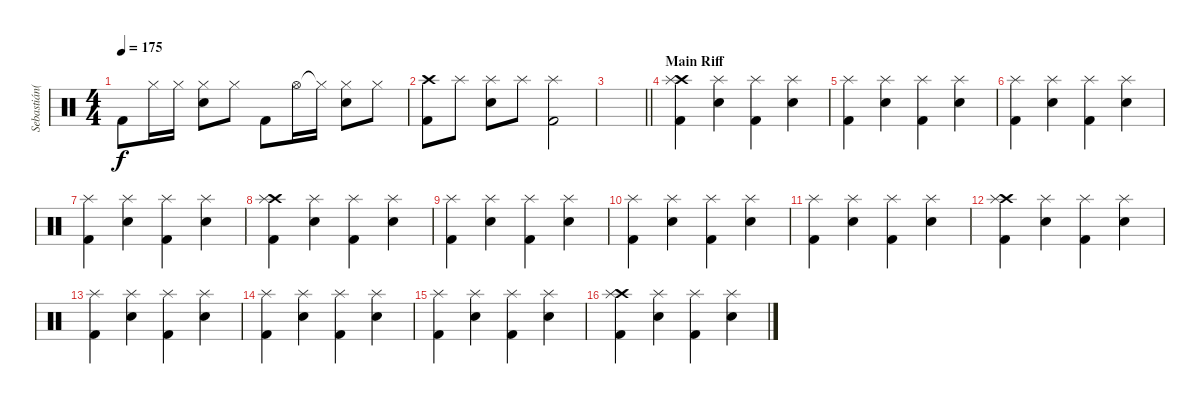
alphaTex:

\track ("Sebastián(Bateria)" "Sebastián(") {instrument percussion}
\staff {score}
\articulation defaults
\ts (4 4)
\tempo 175
\clef neutral
\ks c "Kick (hit) 2".8{dy f} "Hi-Hat (closed)".16 "Hi-Hat (closed)".16
("Hi-Hat (closed)" "Snare (hit) 2").8 "Hi-Hat (closed)".8 "Kick (hit) 2".8 "Hi-Hat (open)".16 "Hi-Hat (closed)"{t}.16 ("Hi-Hat (closed)" "Snare (hit) 2").8 "Hi-Hat (closed)".8 |
("Crash high (hit)" "Kick (hit) 2").8 "Splash (hit)".8 ("Splash (hit)" "Snare (hit) 2").8 "Splash (hit)".8 ("Splash (hit)" "Kick (hit) 2").2 |
\barLineRight lightlight
|
\section ("" "Main Riff")
("Crash high (hit)" "Splash (hit)" "Kick (hit) 2").4 ("Snare (hit) 2" "Splash (hit)").4 ("Splash (hit)" "Kick (hit) 2").4 ("Snare (hit) 2" "Splash (hit)").4 |
("Splash (hit)" "Kick (hit) 2").4 ("Snare (hit) 2" "Splash (hit)").4 ("Splash (hit)" "Kick (hit) 2").4 ("Snare (hit) 2" "Splash (hit)").4 |
("Splash (hit)" "Kick (hit) 2").4 ("Snare (hit) 2" "Splash (hit)").4 ("Splash (hit)" "Kick (hit) 2").4 ("Snare (hit) 2" "Splash (hit)").4 |
("Splash (hit)" "Kick (hit) 2").4 ("Snare (hit) 2" "Splash (hit)").4 ("Splash (hit)" "Kick (hit) 2").4 ("Snare (hit) 2" "Splash (hit)").4 |
("Crash high (hit)" "Splash (hit)" "Kick (hit) 2").4 ("Snare (hit) 2" "Splash (hit)").4 ("Splash (hit)" "Kick (hit) 2").4 ("Snare (hit) 2" "Splash (hit)").4 |
("Splash (hit)" "Kick (hit) 2").4 ("Snare (hit) 2" "Splash (hit)").4 ("Splash (hit)" "Kick (hit) 2").4 ("Snare (hit) 2" "Splash (hit)").4 |
("Splash (hit)" "Kick (hit) 2").4 ("Snare (hit) 2" "Splash (hit)").4 ("Splash (hit)" "Kick (hit) 2").4 ("Snare (hit) 2" "Splash (hit)").4 |
("Splash (hit)" "Kick (hit) 2").4 ("Snare (hit) 2" "Splash (hit)").4 ("Splash (hit)" "Kick (hit) 2").4 ("Snare (hit) 2" "Splash (hit)").4 |
("Crash high (hit)" "Splash (hit)" "Kick (hit) 2").4 ("Snare (hit) 2" "Splash (hit)").4 ("Splash (hit)" "Kick (hit) 2").4 ("Snare (hit) 2" "Splash (hit)").4 |
("Splash (hit)" "Kick (hit) 2").4 ("Snare (hit) 2" "Splash (hit)").4 ("Splash (hit)" "Kick (hit) 2").4 ("Snare (hit) 2" "Splash (hit)").4 |
("Splash (hit)" "Kick (hit) 2").4 ("Snare (hit) 2" "Splash (hit)").4 ("Splash (hit)" "Kick (hit) 2").4 ("Snare (hit) 2" "Splash (hit)").4 |
("Splash (hit)" "Kick (hit) 2").4 ("Snare (hit) 2" "Splash (hit)").4 ("Splash (hit)" "Kick (hit) 2").4 ("Snare (hit) 2" "Splash (hit)").4 |
("Crash high (hit)" "Splash (hit)" "Kick (hit) 2").4 ("Snare (hit) 2" "Splash (hit)").4 ("Splash (hit)" "Kick (hit) 2").4 ("Snare (hit) 2" "Splash (hit)").4
